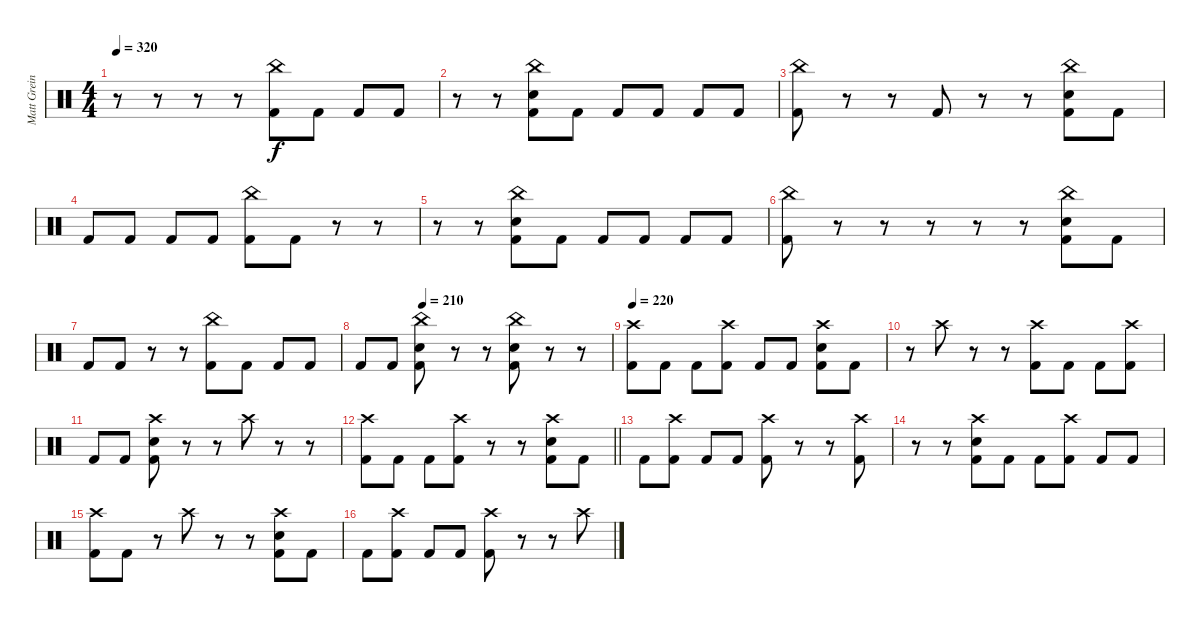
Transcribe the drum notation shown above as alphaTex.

\track ("Matt Greiner (Drums)" "Matt Grein") {instrument percussion}
\staff {score}
\articulation defaults
\ts (4 4)
\tempo 320
\clef neutral
\ks c
r.8{dy f} r.8 r.8 r.8 ("China (hit)" "Kick (hit) 2").8 "Kick (hit) 2".8 "Kick (hit) 2".8 "Kick (hit) 2".8 |
r.8 r.8 ("China (hit)" "Electric Snare (hit)" "Kick (hit) 2").8 "Kick (hit) 2".8 "Kick (hit) 2".8 "Kick (hit) 2".8 "Kick (hit) 2".8 "Kick (hit) 2".8 |
("China (hit)" "Kick (hit) 2").8 r.8 r.8 "Kick (hit) 2".8 r.8 r.8 ("China (hit)" "Electric Snare (hit)" "Kick (hit) 2").8 "Kick (hit) 2".8 |
"Kick (hit) 2".8 "Kick (hit) 2".8 "Kick (hit) 2".8 "Kick (hit) 2".8 ("China (hit)" "Kick (hit) 2").8 "Kick (hit) 2".8 r.8 r.8 |
r.8 r.8 ("China (hit)" "Electric Snare (hit)" "Kick (hit) 2").8 "Kick (hit) 2".8 "Kick (hit) 2".8 "Kick (hit) 2".8 "Kick (hit) 2".8 "Kick (hit) 2".8 |
("China (hit)" "Kick (hit) 2").8 r.8 r.8 r.8 r.8 r.8 ("China (hit)" "Electric Snare (hit)" "Kick (hit) 2").8 "Kick (hit) 2".8 |
"Kick (hit) 2".8 "Kick (hit) 2".8 r.8 r.8 ("China (hit)" "Kick (hit) 2").8 "Kick (hit) 2".8 "Kick (hit) 2".8 "Kick (hit) 2".8 |
\tempo (218 0.25)
\tempo (210 0.25)
"Kick (hit) 2".8 "Kick (hit) 2".8 ("China (hit)" "Electric Snare (hit)" "Kick (hit) 2").8 r.8 r.8 ("China (hit)" "Electric Snare (hit)" "Kick (hit) 2").8 r.8 r.8 |
\tempo 220
("Crash high (hit)" "Kick (hit) 2").8 "Kick (hit) 2".8 "Kick (hit) 2".8 ("Crash high (hit)" "Kick (hit) 2").8 "Kick (hit) 2".8 "Kick (hit) 2".8 ("Crash high (hit)" "Electric Snare (hit)" "Kick (hit) 2").8 "Kick (hit) 2".8 |
r.8 "Crash high (hit)".8 r.8 r.8 ("Crash high (hit)" "Kick (hit) 2").8 "Kick (hit) 2".8 "Kick (hit) 2".8 ("Crash high (hit)" "Kick (hit) 2").8 |
"Kick (hit) 2".8 "Kick (hit) 2".8 ("Crash high (hit)" "Electric Snare (hit)" "Kick (hit) 2").8 r.8 r.8 "Crash high (hit)".8 r.8 r.8 |
\barLineRight lightlight
("Crash high (hit)" "Kick (hit) 2").8 "Kick (hit) 2".8 "Kick (hit) 2".8 ("Crash high (hit)" "Kick (hit) 2").8 r.8 r.8 ("Crash high (hit)" "Electric Snare (hit)" "Kick (hit) 2").8 "Kick (hit) 2".8 |
"Kick (hit) 2".8 ("Crash high (hit)" "Kick (hit) 2").8 "Kick (hit) 2".8 "Kick (hit) 2".8 ("Crash high (hit)" "Kick (hit) 2").8 r.8 r.8 ("Crash high (hit)" "Kick (hit) 2").8 |
r.8 r.8 ("Crash high (hit)" "Electric Snare (hit)" "Kick (hit) 2").8 "Kick (hit) 2".8 "Kick (hit) 2".8 ("Crash high (hit)" "Kick (hit) 2").8 "Kick (hit) 2".8 "Kick (hit) 2".8 |
("Crash high (hit)" "Kick (hit) 2").8 "Kick (hit) 2".8 r.8 "Crash high (hit)".8 r.8 r.8 ("Crash high (hit)" "Electric Snare (hit)" "Kick (hit) 2").8 "Kick (hit) 2".8 |
"Kick (hit) 2".8 ("Crash high (hit)" "Kick (hit) 2").8 "Kick (hit) 2".8 "Kick (hit) 2".8 ("Crash high (hit)" "Kick (hit) 2").8 r.8 r.8 "Crash high (hit)".8
